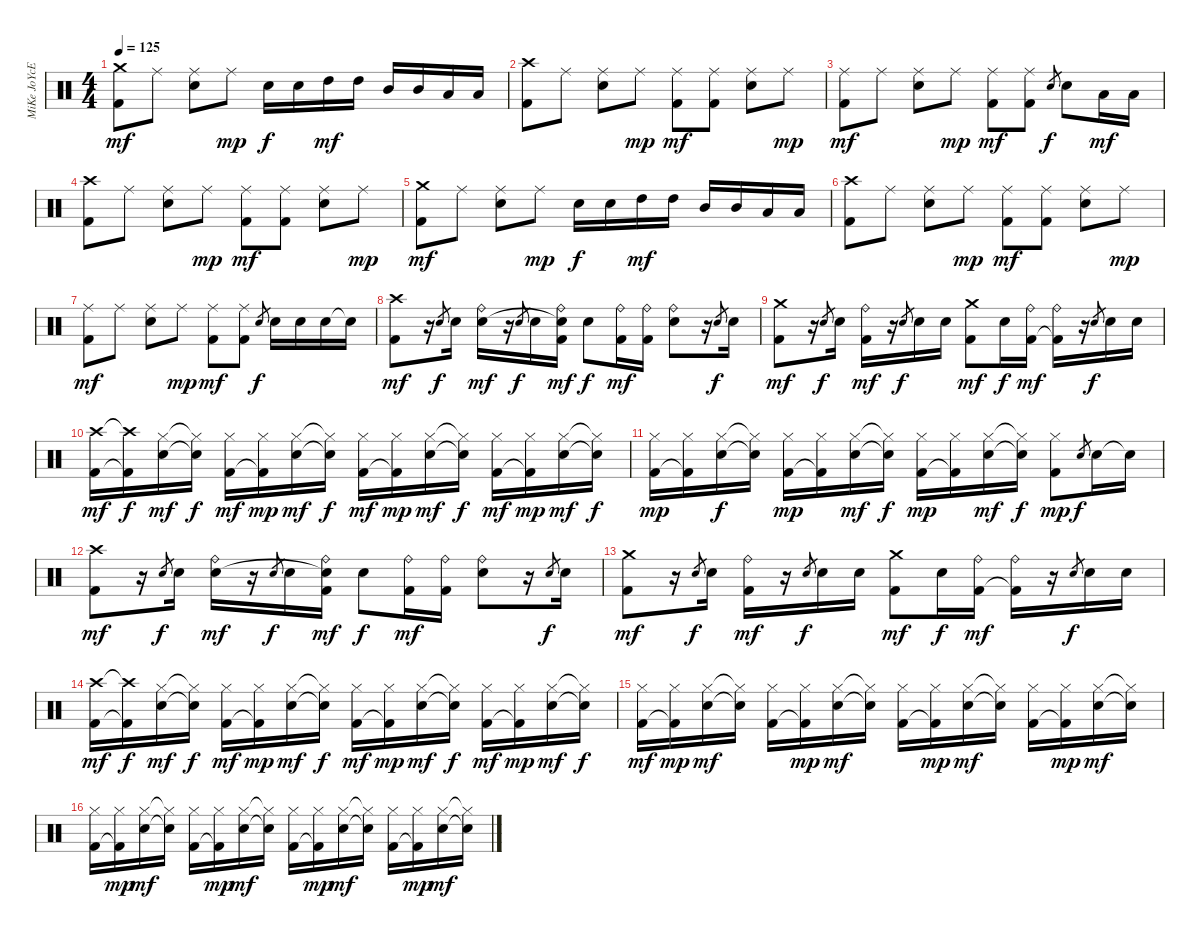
\track ("MiKe JoYcE" "MiKe JoYcE") {instrument percussion}
\staff {score}
\articulation defaults
\ts (4 4)
\tempo 125
\clef neutral
\ks c
("Crash medium (hit)" "Kick (hit) 2").8{dy mf} "Ride (middle)".8 ("Ride (middle)" "Electric Snare (hit)").8 "Ride (middle)".8{dy mp} "Electric Snare (hit)".16{dy f} "Electric Snare (hit)".16 "High Tom (hit)".16{dy mf} "High Tom (hit)".16 "Mid Tom (hit)".16 "Mid Tom (hit)".16 "Low Floor Tom (hit)".16 "Low Floor Tom (hit)".16 |
("Crash high (hit)" "Kick (hit) 2").8 "Ride (middle)".8 ("Ride (middle)" "Electric Snare (hit)").8 "Ride (middle)".8{dy mp} ("Ride (middle)" "Kick (hit) 2").8{dy mf} ("Ride (middle)" "Kick (hit) 2").8 ("Ride (middle)" "Electric Snare (hit)").8 "Ride (middle)".8{dy mp} |
("Ride (middle)" "Kick (hit) 2").8{dy mf} "Ride (middle)".8 ("Ride (middle)" "Electric Snare (hit)").8 "Ride (middle)".8{dy mp} ("Ride (middle)" "Kick (hit) 2").8{dy mf} ("Ride (middle)" "Kick (hit) 2").8 "Electric Snare (hit)".8{gr dy f} "Electric Snare (hit)".8 "Low Floor Tom (hit)".16{dy mf} "Low Floor Tom (hit)".16 |
("Crash high (hit)" "Kick (hit) 2").8 "Ride (middle)".8 ("Ride (middle)" "Electric Snare (hit)").8 "Ride (middle)".8{dy mp} ("Ride (middle)" "Kick (hit) 2").8{dy mf} ("Ride (middle)" "Kick (hit) 2").8 ("Ride (middle)" "Electric Snare (hit)").8 "Ride (middle)".8{dy mp} |
("Crash medium (hit)" "Kick (hit) 2").8{dy mf} "Ride (middle)".8 ("Ride (middle)" "Electric Snare (hit)").8 "Ride (middle)".8{dy mp} "Electric Snare (hit)".16{dy f} "Electric Snare (hit)".16 "High Tom (hit)".16{dy mf} "High Tom (hit)".16 "Mid Tom (hit)".16 "Mid Tom (hit)".16 "Low Floor Tom (hit)".16 "Low Floor Tom (hit)".16 |
("Crash high (hit)" "Kick (hit) 2").8 "Ride (middle)".8 ("Ride (middle)" "Electric Snare (hit)").8 "Ride (middle)".8{dy mp} ("Ride (middle)" "Kick (hit) 2").8{dy mf} ("Ride (middle)" "Kick (hit) 2").8 ("Ride (middle)" "Electric Snare (hit)").8 "Ride (middle)".8{dy mp} |
("Ride (middle)" "Kick (hit) 2").8{dy mf} "Ride (middle)".8 ("Ride (middle)" "Electric Snare (hit)").8 "Ride (middle)".8{dy mp} ("Ride (middle)" "Kick (hit) 2").8{dy mf} ("Ride (middle)" "Kick (hit) 2").8 "Electric Snare (hit)".8{gr dy f} "Electric Snare (hit)".16 "Electric Snare (hit)".16 "Electric Snare (hit)".16 "Electric Snare (hit)"{t}.16 |
("Crash high (hit)" "Kick (hit) 2").8{dy mf} r.16 "Electric Snare (hit)".8{gr dy f} "Electric Snare (hit)".16 ("Ride (bell)" "Electric Snare (hit)").16{dy mf} r.16 "Electric Snare (hit)".8{gr dy f} "Electric Snare (hit)".16 ("Ride (bell)" "Electric Snare (hit)"{t} "Kick (hit) 2").16{dy mf} "Electric Snare (hit)".8{dy f} ("Ride (bell)" "Kick (hit) 2").16{dy mf} ("Ride (bell)" "Kick (hit) 2").16 ("Ride (bell)" "Electric Snare (hit)").8 r.16 "Electric Snare (hit)".8{gr dy f} "Electric Snare (hit)".16 |
("Crash medium (hit)" "Kick (hit) 2").8{dy mf} r.16 "Electric Snare (hit)".8{gr dy f} "Electric Snare (hit)".16 ("Ride (bell)" "Kick (hit) 2").16{dy mf} r.16 "Electric Snare (hit)".8{gr dy f} "Electric Snare (hit)".16 "Electric Snare (hit)".16 ("Crash medium (hit)" "Kick (hit) 2").8{dy mf} "Electric Snare (hit)".16{dy f} ("Ride (bell)" "Kick (hit) 2").16{dy mf} ("Ride (bell)" "Kick (hit) 2"{t}).16 r.16 "Electric Snare (hit)".8{gr dy f} "Electric Snare (hit)".16 "Electric Snare (hit)".16 |
("Crash high (hit)" "Kick (hit) 2").16{dy mf} ("Crash high (hit)"{t} "Kick (hit) 2"{t}).16{dy f} ("Hi-Hat (closed)" "Electric Snare (hit)").16{dy mf} ("Hi-Hat (closed)"{t} "Electric Snare (hit)"{t}).16{dy f} ("Hi-Hat (closed)" "Kick (hit) 2").16{dy mf} ("Hi-Hat (closed)" "Kick (hit) 2"{t}).16{dy mp} ("Hi-Hat (closed)" "Electric Snare (hit)").16{dy mf} ("Hi-Hat (closed)"{t} "Electric Snare (hit)"{t}).16{dy f} ("Hi-Hat (closed)" "Kick (hit) 2").16{dy mf} ("Hi-Hat (closed)" "Kick (hit) 2"{t}).16{dy mp} ("Hi-Hat (closed)" "Electric Snare (hit)").16{dy mf} ("Hi-Hat (closed)"{t} "Electric Snare (hit)"{t}).16{dy f} ("Hi-Hat (closed)" "Kick (hit) 2").16{dy mf} ("Hi-Hat (closed)" "Kick (hit) 2"{t}).16{dy mp} ("Hi-Hat (closed)" "Electric Snare (hit)").16{dy mf} ("Hi-Hat (closed)"{t} "Electric Snare (hit)"{t}).16{dy f} |
("Hi-Hat (closed)" "Kick (hit) 2").16{dy mp} ("Hi-Hat (closed)" "Kick (hit) 2"{t}).16 ("Hi-Hat (closed)" "Electric Snare (hit)").16{dy f} ("Hi-Hat (closed)"{t} "Electric Snare (hit)"{t}).16 ("Hi-Hat (closed)" "Kick (hit) 2").16{dy mp} ("Hi-Hat (closed)" "Kick (hit) 2"{t}).16 ("Hi-Hat (closed)" "Electric Snare (hit)").16{dy mf} ("Hi-Hat (closed)"{t} "Electric Snare (hit)"{t}).16{dy f} ("Hi-Hat (closed)" "Kick (hit) 2").16{dy mp} ("Hi-Hat (closed)" "Kick (hit) 2"{t}).16 ("Hi-Hat (closed)" "Electric Snare (hit)").16{dy mf} ("Hi-Hat (closed)"{t} "Electric Snare (hit)"{t}).16{dy f} ("Hi-Hat (closed)" "Kick (hit) 2").8{dy mp} "Electric Snare (hit)".8{gr dy f} "Electric Snare (hit)".16 "Electric Snare (hit)"{t}.16 |
("Crash high (hit)" "Kick (hit) 2").8{dy mf} r.16 "Electric Snare (hit)".8{gr dy f} "Electric Snare (hit)".16 ("Ride (bell)" "Electric Snare (hit)").16{dy mf} r.16 "Electric Snare (hit)".8{gr dy f} "Electric Snare (hit)".16 ("Ride (bell)" "Electric Snare (hit)"{t} "Kick (hit) 2").16{dy mf} "Electric Snare (hit)".8{dy f} ("Ride (bell)" "Kick (hit) 2").16{dy mf} ("Ride (bell)" "Kick (hit) 2").16 ("Ride (bell)" "Electric Snare (hit)").8 r.16 "Electric Snare (hit)".8{gr dy f} "Electric Snare (hit)".16 |
("Crash medium (hit)" "Kick (hit) 2").8{dy mf} r.16 "Electric Snare (hit)".8{gr dy f} "Electric Snare (hit)".16 ("Ride (bell)" "Kick (hit) 2").16{dy mf} r.16 "Electric Snare (hit)".8{gr dy f} "Electric Snare (hit)".16 "Electric Snare (hit)".16 ("Crash medium (hit)" "Kick (hit) 2").8{dy mf} "Electric Snare (hit)".16{dy f} ("Ride (bell)" "Kick (hit) 2").16{dy mf} ("Ride (bell)" "Kick (hit) 2"{t}).16 r.16 "Electric Snare (hit)".8{gr dy f} "Electric Snare (hit)".16 "Electric Snare (hit)".16 |
("Crash high (hit)" "Kick (hit) 2").16{dy mf} ("Crash high (hit)"{t} "Kick (hit) 2"{t}).16{dy f} ("Hi-Hat (closed)" "Electric Snare (hit)").16{dy mf} ("Hi-Hat (closed)"{t} "Electric Snare (hit)"{t}).16{dy f} ("Hi-Hat (closed)" "Kick (hit) 2").16{dy mf} ("Hi-Hat (closed)" "Kick (hit) 2"{t}).16{dy mp} ("Hi-Hat (closed)" "Electric Snare (hit)").16{dy mf} ("Hi-Hat (closed)"{t} "Electric Snare (hit)"{t}).16{dy f} ("Hi-Hat (closed)" "Kick (hit) 2").16{dy mf} ("Hi-Hat (closed)" "Kick (hit) 2"{t}).16{dy mp} ("Hi-Hat (closed)" "Electric Snare (hit)").16{dy mf} ("Hi-Hat (closed)"{t} "Electric Snare (hit)"{t}).16{dy f} ("Hi-Hat (closed)" "Kick (hit) 2").16{dy mf} ("Hi-Hat (closed)" "Kick (hit) 2"{t}).16{dy mp} ("Hi-Hat (closed)" "Electric Snare (hit)").16{dy mf} ("Hi-Hat (closed)"{t} "Electric Snare (hit)"{t}).16{dy f} |
("Hi-Hat (closed)" "Kick (hit) 2").16{dy mf} ("Hi-Hat (closed)" "Kick (hit) 2"{t}).16{dy mp} ("Hi-Hat (closed)" "Electric Snare (hit)").16{dy mf} ("Hi-Hat (closed)"{t} "Electric Snare (hit)"{t}).16 ("Hi-Hat (closed)" "Kick (hit) 2").16 ("Hi-Hat (closed)" "Kick (hit) 2"{t}).16{dy mp} ("Hi-Hat (closed)" "Electric Snare (hit)").16{dy mf} ("Hi-Hat (closed)"{t} "Electric Snare (hit)"{t}).16 ("Hi-Hat (closed)" "Kick (hit) 2").16 ("Hi-Hat (closed)" "Kick (hit) 2"{t}).16{dy mp} ("Hi-Hat (closed)" "Electric Snare (hit)").16{dy mf} ("Hi-Hat (closed)"{t} "Electric Snare (hit)"{t}).16 ("Hi-Hat (closed)" "Kick (hit) 2").16 ("Hi-Hat (closed)" "Kick (hit) 2"{t}).16{dy mp} ("Hi-Hat (closed)" "Electric Snare (hit)").16{dy mf} ("Hi-Hat (closed)"{t} "Electric Snare (hit)"{t}).16 |
("Hi-Hat (closed)" "Kick (hit) 2").16 ("Hi-Hat (closed)" "Kick (hit) 2"{t}).16{dy mp} ("Hi-Hat (closed)" "Electric Snare (hit)").16{dy mf} ("Hi-Hat (closed)"{t} "Electric Snare (hit)"{t}).16 ("Hi-Hat (closed)" "Kick (hit) 2").16 ("Hi-Hat (closed)" "Kick (hit) 2"{t}).16{dy mp} ("Hi-Hat (closed)" "Electric Snare (hit)").16{dy mf} ("Hi-Hat (closed)"{t} "Electric Snare (hit)"{t}).16 ("Hi-Hat (closed)" "Kick (hit) 2").16 ("Hi-Hat (closed)" "Kick (hit) 2"{t}).16{dy mp} ("Hi-Hat (closed)" "Electric Snare (hit)").16{dy mf} ("Hi-Hat (closed)"{t} "Electric Snare (hit)"{t}).16 ("Hi-Hat (closed)" "Kick (hit) 2").16 ("Hi-Hat (closed)" "Kick (hit) 2"{t}).16{dy mp} ("Hi-Hat (closed)" "Electric Snare (hit)").16{dy mf} ("Hi-Hat (closed)"{t} "Electric Snare (hit)"{t}).16
